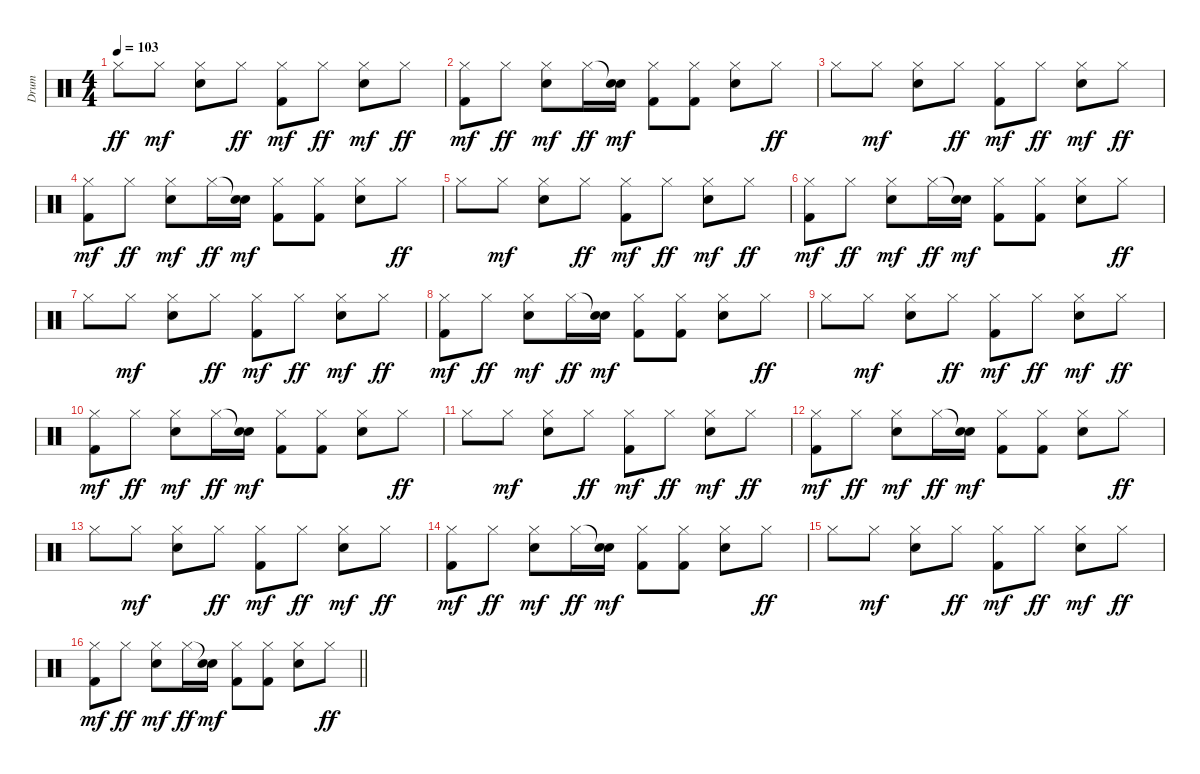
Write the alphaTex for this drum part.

\track ("Drum" "Drum") {instrument percussion}
\staff {score}
\articulation defaults
\ts (4 4)
\tempo 103
\clef neutral
\ks c "Hi-Hat (closed)".8{dy ff} "Hi-Hat (closed)".8{dy mf}
("Hi-Hat (closed)" "Electric Snare (hit)").8 "Hi-Hat (closed)".8{dy ff} ("Hi-Hat (closed)" "Kick (hit) 2").8{dy mf} "Hi-Hat (closed)".8{dy ff} ("Hi-Hat (closed)" "Electric Snare (hit)").8{dy mf} "Hi-Hat (closed)".8{dy ff} |
("Hi-Hat (closed)" "Kick (hit) 2").8{dy mf} "Hi-Hat (closed)".8{dy ff} ("Hi-Hat (closed)" "Electric Snare (hit)").8{dy mf} "Hi-Hat (closed)".16{dy ff} ("Snare (hit)"{t} "Electric Snare (hit)").16{dy mf} ("Hi-Hat (closed)" "Kick (hit) 2").8 ("Hi-Hat (closed)" "Kick (hit) 2").8 ("Hi-Hat (closed)" "Electric Snare (hit)").8 "Hi-Hat (closed)".8{dy ff} |
"Hi-Hat (closed)".8 "Hi-Hat (closed)".8{dy mf} ("Hi-Hat (closed)" "Electric Snare (hit)").8 "Hi-Hat (closed)".8{dy ff} ("Hi-Hat (closed)" "Kick (hit) 2").8{dy mf} "Hi-Hat (closed)".8{dy ff} ("Hi-Hat (closed)" "Electric Snare (hit)").8{dy mf} "Hi-Hat (closed)".8{dy ff} |
("Hi-Hat (closed)" "Kick (hit) 2").8{dy mf} "Hi-Hat (closed)".8{dy ff} ("Hi-Hat (closed)" "Electric Snare (hit)").8{dy mf} "Hi-Hat (closed)".16{dy ff} ("Snare (hit)"{t} "Electric Snare (hit)").16{dy mf} ("Hi-Hat (closed)" "Kick (hit) 2").8 ("Hi-Hat (closed)" "Kick (hit) 2").8 ("Hi-Hat (closed)" "Electric Snare (hit)").8 "Hi-Hat (closed)".8{dy ff} |
"Hi-Hat (closed)".8 "Hi-Hat (closed)".8{dy mf} ("Hi-Hat (closed)" "Electric Snare (hit)").8 "Hi-Hat (closed)".8{dy ff} ("Hi-Hat (closed)" "Kick (hit) 2").8{dy mf} "Hi-Hat (closed)".8{dy ff} ("Hi-Hat (closed)" "Electric Snare (hit)").8{dy mf} "Hi-Hat (closed)".8{dy ff} |
("Hi-Hat (closed)" "Kick (hit) 2").8{dy mf} "Hi-Hat (closed)".8{dy ff} ("Hi-Hat (closed)" "Electric Snare (hit)").8{dy mf} "Hi-Hat (closed)".16{dy ff} ("Snare (hit)"{t} "Electric Snare (hit)").16{dy mf} ("Hi-Hat (closed)" "Kick (hit) 2").8 ("Hi-Hat (closed)" "Kick (hit) 2").8 ("Hi-Hat (closed)" "Electric Snare (hit)").8 "Hi-Hat (closed)".8{dy ff} |
"Hi-Hat (closed)".8 "Hi-Hat (closed)".8{dy mf} ("Hi-Hat (closed)" "Electric Snare (hit)").8 "Hi-Hat (closed)".8{dy ff} ("Hi-Hat (closed)" "Kick (hit) 2").8{dy mf} "Hi-Hat (closed)".8{dy ff} ("Hi-Hat (closed)" "Electric Snare (hit)").8{dy mf} "Hi-Hat (closed)".8{dy ff} |
("Hi-Hat (closed)" "Kick (hit) 2").8{dy mf} "Hi-Hat (closed)".8{dy ff} ("Hi-Hat (closed)" "Electric Snare (hit)").8{dy mf} "Hi-Hat (closed)".16{dy ff} ("Snare (hit)"{t} "Electric Snare (hit)").16{dy mf} ("Hi-Hat (closed)" "Kick (hit) 2").8 ("Hi-Hat (closed)" "Kick (hit) 2").8 ("Hi-Hat (closed)" "Electric Snare (hit)").8 "Hi-Hat (closed)".8{dy ff} |
"Hi-Hat (closed)".8 "Hi-Hat (closed)".8{dy mf} ("Hi-Hat (closed)" "Electric Snare (hit)").8 "Hi-Hat (closed)".8{dy ff} ("Hi-Hat (closed)" "Kick (hit) 2").8{dy mf} "Hi-Hat (closed)".8{dy ff} ("Hi-Hat (closed)" "Electric Snare (hit)").8{dy mf} "Hi-Hat (closed)".8{dy ff} |
("Hi-Hat (closed)" "Kick (hit) 2").8{dy mf} "Hi-Hat (closed)".8{dy ff} ("Hi-Hat (closed)" "Electric Snare (hit)").8{dy mf} "Hi-Hat (closed)".16{dy ff} ("Snare (hit)"{t} "Electric Snare (hit)").16{dy mf} ("Hi-Hat (closed)" "Kick (hit) 2").8 ("Hi-Hat (closed)" "Kick (hit) 2").8 ("Hi-Hat (closed)" "Electric Snare (hit)").8 "Hi-Hat (closed)".8{dy ff} |
"Hi-Hat (closed)".8 "Hi-Hat (closed)".8{dy mf} ("Hi-Hat (closed)" "Electric Snare (hit)").8 "Hi-Hat (closed)".8{dy ff} ("Hi-Hat (closed)" "Kick (hit) 2").8{dy mf} "Hi-Hat (closed)".8{dy ff} ("Hi-Hat (closed)" "Electric Snare (hit)").8{dy mf} "Hi-Hat (closed)".8{dy ff} |
("Hi-Hat (closed)" "Kick (hit) 2").8{dy mf} "Hi-Hat (closed)".8{dy ff} ("Hi-Hat (closed)" "Electric Snare (hit)").8{dy mf} "Hi-Hat (closed)".16{dy ff} ("Snare (hit)"{t} "Electric Snare (hit)").16{dy mf} ("Hi-Hat (closed)" "Kick (hit) 2").8 ("Hi-Hat (closed)" "Kick (hit) 2").8 ("Hi-Hat (closed)" "Electric Snare (hit)").8 "Hi-Hat (closed)".8{dy ff} |
"Hi-Hat (closed)".8 "Hi-Hat (closed)".8{dy mf} ("Hi-Hat (closed)" "Electric Snare (hit)").8 "Hi-Hat (closed)".8{dy ff} ("Hi-Hat (closed)" "Kick (hit) 2").8{dy mf} "Hi-Hat (closed)".8{dy ff} ("Hi-Hat (closed)" "Electric Snare (hit)").8{dy mf} "Hi-Hat (closed)".8{dy ff} |
("Hi-Hat (closed)" "Kick (hit) 2").8{dy mf} "Hi-Hat (closed)".8{dy ff} ("Hi-Hat (closed)" "Electric Snare (hit)").8{dy mf} "Hi-Hat (closed)".16{dy ff} ("Snare (hit)"{t} "Electric Snare (hit)").16{dy mf} ("Hi-Hat (closed)" "Kick (hit) 2").8 ("Hi-Hat (closed)" "Kick (hit) 2").8 ("Hi-Hat (closed)" "Electric Snare (hit)").8 "Hi-Hat (closed)".8{dy ff} |
"Hi-Hat (closed)".8 "Hi-Hat (closed)".8{dy mf} ("Hi-Hat (closed)" "Electric Snare (hit)").8 "Hi-Hat (closed)".8{dy ff} ("Hi-Hat (closed)" "Kick (hit) 2").8{dy mf} "Hi-Hat (closed)".8{dy ff} ("Hi-Hat (closed)" "Electric Snare (hit)").8{dy mf} "Hi-Hat (closed)".8{dy ff} |
\barLineRight lightlight
("Hi-Hat (closed)" "Kick (hit) 2").8{dy mf} "Hi-Hat (closed)".8{dy ff} ("Hi-Hat (closed)" "Electric Snare (hit)").8{dy mf} "Hi-Hat (closed)".16{dy ff} ("Snare (hit)"{t} "Electric Snare (hit)").16{dy mf} ("Hi-Hat (closed)" "Kick (hit) 2").8 ("Hi-Hat (closed)" "Kick (hit) 2").8 ("Hi-Hat (closed)" "Electric Snare (hit)").8 "Hi-Hat (closed)".8{dy ff}
